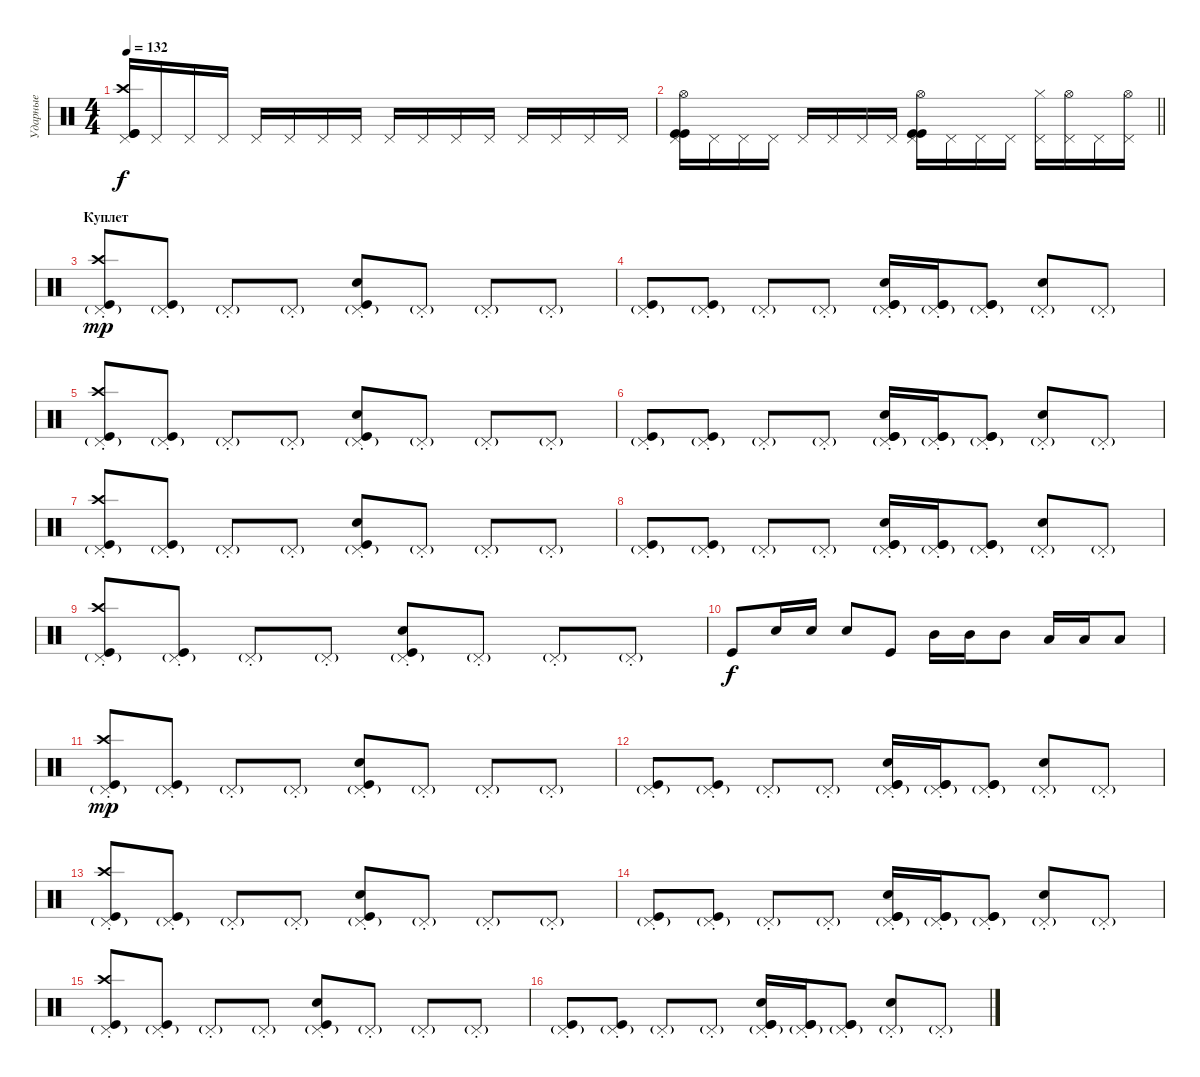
\track ("Ударные" "Ударные") {instrument percussion}
\staff {score}
\articulation defaults
\ts (4 4)
\tempo 132
\clef neutral
\ks c
("Pedal Hi-Hat (hit)" "Crash high (hit)" "Kick (hit)" "Kick (hit)").16{dy f} "Pedal Hi-Hat (hit)".16 "Pedal Hi-Hat (hit)".16 "Pedal Hi-Hat (hit)".16 "Pedal Hi-Hat (hit)".16 "Pedal Hi-Hat (hit)".16 "Pedal Hi-Hat (hit)".16 "Pedal Hi-Hat (hit)".16 "Pedal Hi-Hat (hit)".16 "Pedal Hi-Hat (hit)".16 "Pedal Hi-Hat (hit)".16 "Pedal Hi-Hat (hit)".16 "Pedal Hi-Hat (hit)".16 "Pedal Hi-Hat (hit)".16 "Pedal Hi-Hat (hit)".16 "Pedal Hi-Hat (hit)".16 |
\barLineRight lightlight
("Pedal Hi-Hat (hit)" "Hi-Hat (open)" "Kick (hit)" "Kick (hit)").16 "Pedal Hi-Hat (hit)".16 "Pedal Hi-Hat (hit)".16 "Pedal Hi-Hat (hit)".16 "Pedal Hi-Hat (hit)".16 "Pedal Hi-Hat (hit)".16 "Pedal Hi-Hat (hit)".16 "Pedal Hi-Hat (hit)".16 ("Pedal Hi-Hat (hit)" "Hi-Hat (open)" "Kick (hit)" "Kick (hit)").16 "Pedal Hi-Hat (hit)".16 "Pedal Hi-Hat (hit)".16 "Pedal Hi-Hat (hit)".16 ("Pedal Hi-Hat (hit)" "Hi-Hat (closed)").16 ("Pedal Hi-Hat (hit)" "Hi-Hat (open)").16 "Pedal Hi-Hat (hit)".16 ("Pedal Hi-Hat (hit)" "Hi-Hat (open)").16 |
\section ("" "Куплет")
("Pedal Hi-Hat (hit)"{g st} "Kick (hit)" "Crash high (hit)").8{dy mp} ("Pedal Hi-Hat (hit)"{g st} "Kick (hit)").8 "Pedal Hi-Hat (hit)"{g st}.8 "Pedal Hi-Hat (hit)"{g st}.8 ("Pedal Hi-Hat (hit)"{g st} "Electric Snare (hit)" "Kick (hit)").8 "Pedal Hi-Hat (hit)"{g st}.8 "Pedal Hi-Hat (hit)"{g st}.8 "Pedal Hi-Hat (hit)"{g st}.8 |
("Pedal Hi-Hat (hit)"{g st} "Kick (hit)").8 ("Pedal Hi-Hat (hit)"{g st} "Kick (hit)").8 "Pedal Hi-Hat (hit)"{g st}.8 "Pedal Hi-Hat (hit)"{g st}.8 ("Pedal Hi-Hat (hit)"{g st} "Electric Snare (hit)" "Kick (hit)" "Kick (hit)").16 ("Pedal Hi-Hat (hit)"{g st} "Kick (hit)" "Kick (hit)").16 ("Pedal Hi-Hat (hit)"{g st} "Kick (hit)" "Kick (hit)").8 ("Pedal Hi-Hat (hit)"{g st} "Electric Snare (hit)").8 "Pedal Hi-Hat (hit)"{g st}.8 |
("Pedal Hi-Hat (hit)"{g st} "Kick (hit)" "Crash high (hit)").8 ("Pedal Hi-Hat (hit)"{g st} "Kick (hit)").8 "Pedal Hi-Hat (hit)"{g st}.8 "Pedal Hi-Hat (hit)"{g st}.8 ("Pedal Hi-Hat (hit)"{g st} "Electric Snare (hit)" "Kick (hit)").8 "Pedal Hi-Hat (hit)"{g st}.8 "Pedal Hi-Hat (hit)"{g st}.8 "Pedal Hi-Hat (hit)"{g st}.8 |
("Pedal Hi-Hat (hit)"{g st} "Kick (hit)").8 ("Pedal Hi-Hat (hit)"{g st} "Kick (hit)").8 "Pedal Hi-Hat (hit)"{g st}.8 "Pedal Hi-Hat (hit)"{g st}.8 ("Pedal Hi-Hat (hit)"{g st} "Electric Snare (hit)" "Kick (hit)" "Kick (hit)").16 ("Pedal Hi-Hat (hit)"{g st} "Kick (hit)" "Kick (hit)").16 ("Pedal Hi-Hat (hit)"{g st} "Kick (hit)" "Kick (hit)").8 ("Pedal Hi-Hat (hit)"{g st} "Electric Snare (hit)").8 "Pedal Hi-Hat (hit)"{g st}.8 |
("Pedal Hi-Hat (hit)"{g st} "Kick (hit)" "Crash high (hit)").8 ("Pedal Hi-Hat (hit)"{g st} "Kick (hit)").8 "Pedal Hi-Hat (hit)"{g st}.8 "Pedal Hi-Hat (hit)"{g st}.8 ("Pedal Hi-Hat (hit)"{g st} "Electric Snare (hit)" "Kick (hit)").8 "Pedal Hi-Hat (hit)"{g st}.8 "Pedal Hi-Hat (hit)"{g st}.8 "Pedal Hi-Hat (hit)"{g st}.8 |
("Pedal Hi-Hat (hit)"{g st} "Kick (hit)").8 ("Pedal Hi-Hat (hit)"{g st} "Kick (hit)").8 "Pedal Hi-Hat (hit)"{g st}.8 "Pedal Hi-Hat (hit)"{g st}.8 ("Pedal Hi-Hat (hit)"{g st} "Electric Snare (hit)" "Kick (hit)" "Kick (hit)").16 ("Pedal Hi-Hat (hit)"{g st} "Kick (hit)" "Kick (hit)").16 ("Pedal Hi-Hat (hit)"{g st} "Kick (hit)" "Kick (hit)").8 ("Pedal Hi-Hat (hit)"{g st} "Electric Snare (hit)").8 "Pedal Hi-Hat (hit)"{g st}.8 |
("Pedal Hi-Hat (hit)"{g st} "Kick (hit)" "Crash high (hit)").8 ("Pedal Hi-Hat (hit)"{g st} "Kick (hit)").8 "Pedal Hi-Hat (hit)"{g st}.8 "Pedal Hi-Hat (hit)"{g st}.8 ("Pedal Hi-Hat (hit)"{g st} "Electric Snare (hit)" "Kick (hit)").8 "Pedal Hi-Hat (hit)"{g st}.8 "Pedal Hi-Hat (hit)"{g st}.8 "Pedal Hi-Hat (hit)"{g st}.8 |
"Kick (hit)".8{dy f} "Electric Snare (hit)".16 "Electric Snare (hit)".16 "Electric Snare (hit)".8 "Kick (hit)".8 "Mid Tom (hit)".16 "Mid Tom (hit)".16 "Mid Tom (hit)".8 "Low Tom (hit)".16 "Low Tom (hit)".16 "Low Tom (hit)".8 |
("Pedal Hi-Hat (hit)"{g st} "Kick (hit)" "Crash high (hit)").8{dy mp} ("Pedal Hi-Hat (hit)"{g st} "Kick (hit)").8 "Pedal Hi-Hat (hit)"{g st}.8 "Pedal Hi-Hat (hit)"{g st}.8 ("Pedal Hi-Hat (hit)"{g st} "Electric Snare (hit)" "Kick (hit)").8 "Pedal Hi-Hat (hit)"{g st}.8 "Pedal Hi-Hat (hit)"{g st}.8 "Pedal Hi-Hat (hit)"{g st}.8 |
("Pedal Hi-Hat (hit)"{g st} "Kick (hit)").8 ("Pedal Hi-Hat (hit)"{g st} "Kick (hit)").8 "Pedal Hi-Hat (hit)"{g st}.8 "Pedal Hi-Hat (hit)"{g st}.8 ("Pedal Hi-Hat (hit)"{g st} "Electric Snare (hit)" "Kick (hit)" "Kick (hit)").16 ("Pedal Hi-Hat (hit)"{g st} "Kick (hit)" "Kick (hit)").16 ("Pedal Hi-Hat (hit)"{g st} "Kick (hit)" "Kick (hit)").8 ("Pedal Hi-Hat (hit)"{g st} "Electric Snare (hit)").8 "Pedal Hi-Hat (hit)"{g st}.8 |
("Pedal Hi-Hat (hit)"{g st} "Kick (hit)" "Crash high (hit)").8 ("Pedal Hi-Hat (hit)"{g st} "Kick (hit)").8 "Pedal Hi-Hat (hit)"{g st}.8 "Pedal Hi-Hat (hit)"{g st}.8 ("Pedal Hi-Hat (hit)"{g st} "Electric Snare (hit)" "Kick (hit)").8 "Pedal Hi-Hat (hit)"{g st}.8 "Pedal Hi-Hat (hit)"{g st}.8 "Pedal Hi-Hat (hit)"{g st}.8 |
("Pedal Hi-Hat (hit)"{g st} "Kick (hit)").8 ("Pedal Hi-Hat (hit)"{g st} "Kick (hit)").8 "Pedal Hi-Hat (hit)"{g st}.8 "Pedal Hi-Hat (hit)"{g st}.8 ("Pedal Hi-Hat (hit)"{g st} "Electric Snare (hit)" "Kick (hit)" "Kick (hit)").16 ("Pedal Hi-Hat (hit)"{g st} "Kick (hit)" "Kick (hit)").16 ("Pedal Hi-Hat (hit)"{g st} "Kick (hit)" "Kick (hit)").8 ("Pedal Hi-Hat (hit)"{g st} "Electric Snare (hit)").8 "Pedal Hi-Hat (hit)"{g st}.8 |
("Pedal Hi-Hat (hit)"{g st} "Kick (hit)" "Crash high (hit)").8 ("Pedal Hi-Hat (hit)"{g st} "Kick (hit)").8 "Pedal Hi-Hat (hit)"{g st}.8 "Pedal Hi-Hat (hit)"{g st}.8 ("Pedal Hi-Hat (hit)"{g st} "Electric Snare (hit)" "Kick (hit)").8 "Pedal Hi-Hat (hit)"{g st}.8 "Pedal Hi-Hat (hit)"{g st}.8 "Pedal Hi-Hat (hit)"{g st}.8 |
("Pedal Hi-Hat (hit)"{g st} "Kick (hit)").8 ("Pedal Hi-Hat (hit)"{g st} "Kick (hit)").8 "Pedal Hi-Hat (hit)"{g st}.8 "Pedal Hi-Hat (hit)"{g st}.8 ("Pedal Hi-Hat (hit)"{g st} "Electric Snare (hit)" "Kick (hit)" "Kick (hit)").16 ("Pedal Hi-Hat (hit)"{g st} "Kick (hit)" "Kick (hit)").16 ("Pedal Hi-Hat (hit)"{g st} "Kick (hit)" "Kick (hit)").8 ("Pedal Hi-Hat (hit)"{g st} "Electric Snare (hit)").8 "Pedal Hi-Hat (hit)"{g st}.8
